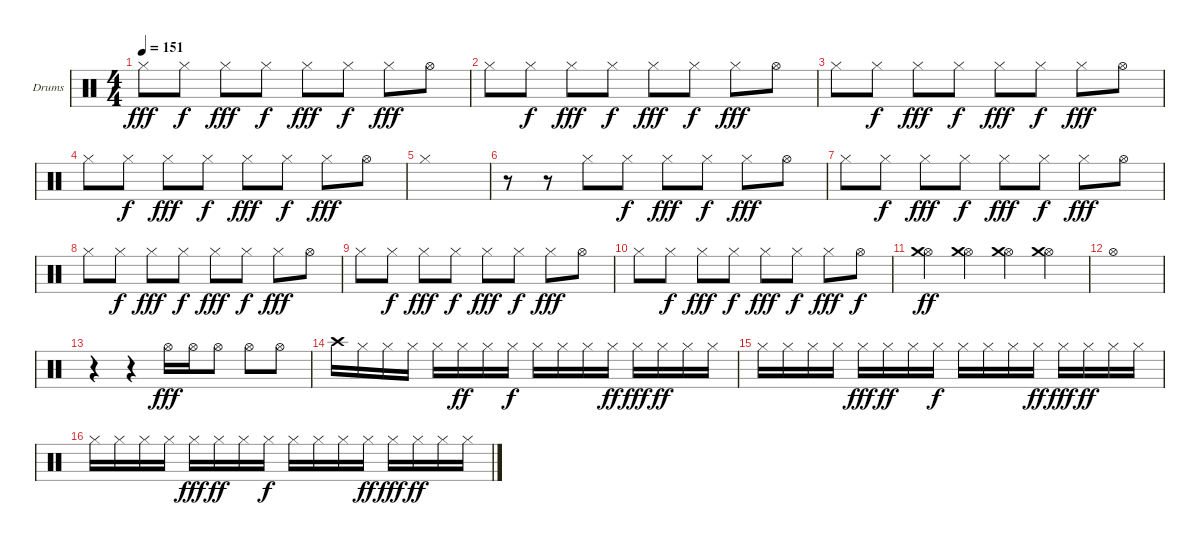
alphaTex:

\defaultSystemsLayout 4
\bracketExtendMode groupsimilarinstruments
\firstSystemTrackNameOrientation horizontal
\otherSystemsTrackNameOrientation horizontal
\track ("Helders" "Drums") {instrument percussion}
\staff {score}
\articulation defaults
\ts (4 4)
\tempo 151
\clef neutral
\ks c "Hi-Hat (closed)".8{dy fff} "Hi-Hat (closed)".8{dy f} "Hi-Hat (closed)".8{dy fff} "Hi-Hat (closed)".8{dy f} "Hi-Hat (closed)".8{dy fff} "Hi-Hat (closed)".8{dy f} "Hi-Hat (closed)".8{dy fff} "Hi-Hat (open)".8
|
"Hi-Hat (closed)".8 "Hi-Hat (closed)".8{dy f} "Hi-Hat (closed)".8{dy fff} "Hi-Hat (closed)".8{dy f} "Hi-Hat (closed)".8{dy fff} "Hi-Hat (closed)".8{dy f} "Hi-Hat (closed)".8{dy fff} "Hi-Hat (open)".8 |
"Hi-Hat (closed)".8 "Hi-Hat (closed)".8{dy f} "Hi-Hat (closed)".8{dy fff} "Hi-Hat (closed)".8{dy f} "Hi-Hat (closed)".8{dy fff} "Hi-Hat (closed)".8{dy f} "Hi-Hat (closed)".8{dy fff} "Hi-Hat (open)".8 |
"Hi-Hat (closed)".8 "Hi-Hat (closed)".8{dy f} "Hi-Hat (closed)".8{dy fff} "Hi-Hat (closed)".8{dy f} "Hi-Hat (closed)".8{dy fff} "Hi-Hat (closed)".8{dy f} "Hi-Hat (closed)".8{dy fff} "Hi-Hat (open)".8 |
"Hi-Hat (closed)".1 |
r.8 r.8 "Hi-Hat (closed)".8 "Hi-Hat (closed)".8{dy f} "Hi-Hat (closed)".8{dy fff} "Hi-Hat (closed)".8{dy f} "Hi-Hat (closed)".8{dy fff} "Hi-Hat (open)".8 |
"Hi-Hat (closed)".8 "Hi-Hat (closed)".8{dy f} "Hi-Hat (closed)".8{dy fff} "Hi-Hat (closed)".8{dy f} "Hi-Hat (closed)".8{dy fff} "Hi-Hat (closed)".8{dy f} "Hi-Hat (closed)".8{dy fff} "Hi-Hat (open)".8 |
"Hi-Hat (closed)".8 "Hi-Hat (closed)".8{dy f} "Hi-Hat (closed)".8{dy fff} "Hi-Hat (closed)".8{dy f} "Hi-Hat (closed)".8{dy fff} "Hi-Hat (closed)".8{dy f} "Hi-Hat (closed)".8{dy fff} "Hi-Hat (open)".8 |
"Hi-Hat (closed)".8 "Hi-Hat (closed)".8{dy f} "Hi-Hat (closed)".8{dy fff} "Hi-Hat (closed)".8{dy f} "Hi-Hat (closed)".8{dy fff} "Hi-Hat (closed)".8{dy f} "Hi-Hat (closed)".8{dy fff} "Hi-Hat (open)".8 |
"Hi-Hat (closed)".8 "Hi-Hat (closed)".8{dy f} "Hi-Hat (closed)".8{dy fff} "Hi-Hat (closed)".8{dy f} "Hi-Hat (closed)".8{dy fff} "Hi-Hat (closed)".8{dy f} "Hi-Hat (closed)".8{dy fff} "Hi-Hat (open)".8{dy f} |
("Hi-Hat (open)" "Crash medium (hit)").4{dy ff} ("Hi-Hat (open)" "Crash medium (hit)").4 ("Hi-Hat (open)" "Crash medium (hit)").4 ("Hi-Hat (open)" "Crash medium (hit)").4 |
"Hi-Hat (open)".1 |
r.4 r.4 "Hi-Hat (open)".16{dy fff} "Hi-Hat (open)".16 "Hi-Hat (open)".8 "Hi-Hat (open)".8 "Hi-Hat (open)".8 |
"Crash high (hit)".16 "Hi-Hat (closed)".16 "Hi-Hat (closed)".16 "Hi-Hat (closed)".16 "Hi-Hat (closed)".16 "Hi-Hat (closed)".16{dy ff} "Hi-Hat (closed)".16 "Hi-Hat (closed)".16{dy f} "Hi-Hat (closed)".16 "Hi-Hat (closed)".16 "Hi-Hat (closed)".16 "Hi-Hat (closed)".16{dy ff} "Hi-Hat (closed)".16{dy fff} "Hi-Hat (closed)".16{dy ff} "Hi-Hat (closed)".16 "Hi-Hat (closed)".16 |
"Hi-Hat (closed)".16 "Hi-Hat (closed)".16 "Hi-Hat (closed)".16 "Hi-Hat (closed)".16 "Hi-Hat (closed)".16{dy fff} "Hi-Hat (closed)".16{dy ff} "Hi-Hat (closed)".16 "Hi-Hat (closed)".16{dy f} "Hi-Hat (closed)".16 "Hi-Hat (closed)".16 "Hi-Hat (closed)".16 "Hi-Hat (closed)".16{dy ff} "Hi-Hat (closed)".16{dy fff} "Hi-Hat (closed)".16{dy ff} "Hi-Hat (closed)".16 "Hi-Hat (closed)".16 |
"Hi-Hat (closed)".16 "Hi-Hat (closed)".16 "Hi-Hat (closed)".16 "Hi-Hat (closed)".16 "Hi-Hat (closed)".16{dy fff} "Hi-Hat (closed)".16{dy ff} "Hi-Hat (closed)".16 "Hi-Hat (closed)".16{dy f} "Hi-Hat (closed)".16 "Hi-Hat (closed)".16 "Hi-Hat (closed)".16 "Hi-Hat (closed)".16{dy ff} "Hi-Hat (closed)".16{dy fff} "Hi-Hat (closed)".16{dy ff} "Hi-Hat (closed)".16 "Hi-Hat (closed)".16
